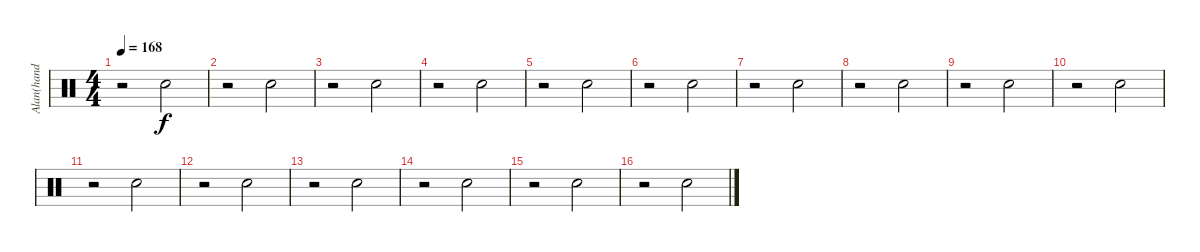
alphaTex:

\track ("Alan(hand clap)" "Alan(hand ") {instrument percussion}
\staff {score}
\articulation defaults
\ts (4 4)
\tempo 168
\clef neutral
\ks c
r.2{dy f} "Hand Clap (hit)".2 |
r.2 "Hand Clap (hit)".2 |
r.2 "Hand Clap (hit)".2 |
r.2 "Hand Clap (hit)".2 |
r.2 "Hand Clap (hit)".2 |
r.2 "Hand Clap (hit)".2 |
r.2 "Hand Clap (hit)".2 |
r.2 "Hand Clap (hit)".2 |
r.2 "Hand Clap (hit)".2 |
r.2 "Hand Clap (hit)".2 |
r.2 "Hand Clap (hit)".2 |
r.2 "Hand Clap (hit)".2 |
r.2 "Hand Clap (hit)".2 |
r.2 "Hand Clap (hit)".2 |
r.2 "Hand Clap (hit)".2 |
r.2 "Hand Clap (hit)".2
